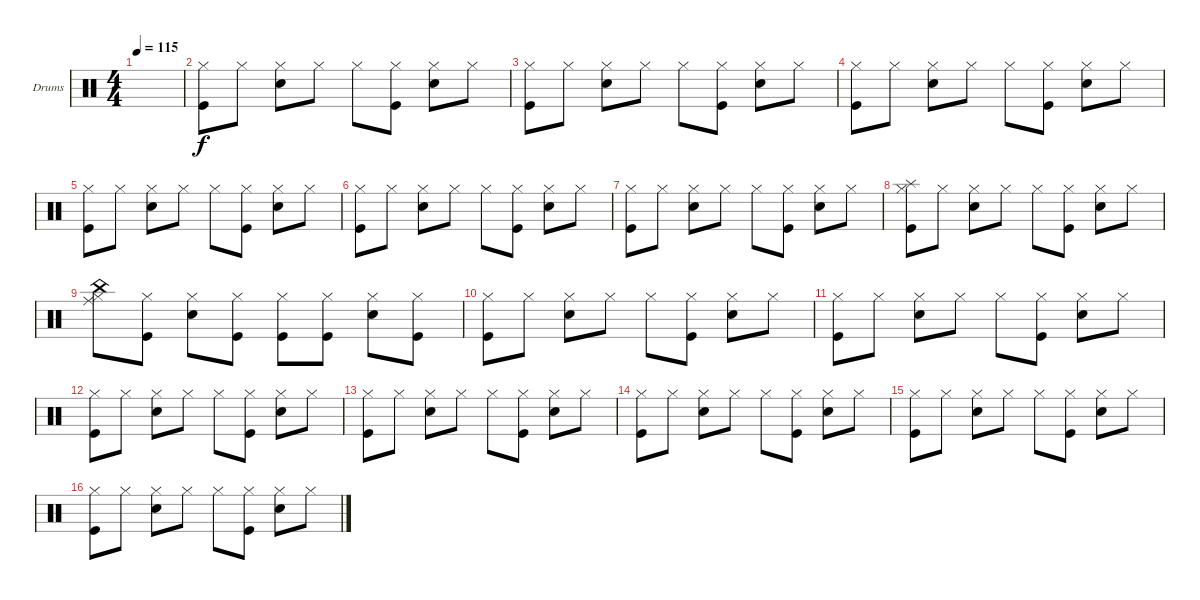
\defaultSystemsLayout 4
\bracketExtendMode groupsimilarinstruments
\firstSystemTrackNameOrientation horizontal
\otherSystemsTrackNameOrientation horizontal
\track ("Drumkit" "Drums") {instrument percussion}
\staff {score}
\articulation defaults
\ts (4 4)
\tempo 115
\clef neutral
\scale
0.474178
\ks c
|
\scale
0.262911 ("Kick (hit)" "Hi-Hat (closed)").8 "Hi-Hat (closed)".8 ("Hi-Hat (closed)" "Snare (hit) 2").8 "Hi-Hat (closed)".8 "Hi-Hat (closed)".8 ("Hi-Hat (closed)" "Kick (hit)").8 ("Hi-Hat (closed)" "Snare (hit) 2").8 "Hi-Hat (closed)".8 |
\scale
0.262911 ("Kick (hit)" "Hi-Hat (closed)").8 "Hi-Hat (closed)".8 ("Hi-Hat (closed)" "Snare (hit) 2").8 "Hi-Hat (closed)".8 "Hi-Hat (closed)".8 ("Hi-Hat (closed)" "Kick (hit)").8 ("Hi-Hat (closed)" "Snare (hit) 2").8 "Hi-Hat (closed)".8 |
\scale
0.333333 ("Kick (hit)" "Hi-Hat (closed)").8 "Hi-Hat (closed)".8 ("Hi-Hat (closed)" "Snare (hit) 2").8 "Hi-Hat (closed)".8 "Hi-Hat (closed)".8 ("Hi-Hat (closed)" "Kick (hit)").8 ("Hi-Hat (closed)" "Snare (hit) 2").8 "Hi-Hat (closed)".8 |
\scale
0.333333 ("Kick (hit)" "Hi-Hat (closed)").8 "Hi-Hat (closed)".8 ("Hi-Hat (closed)" "Snare (hit) 2").8 "Hi-Hat (closed)".8 "Hi-Hat (closed)".8 ("Hi-Hat (closed)" "Kick (hit)").8 ("Hi-Hat (closed)" "Snare (hit) 2").8 "Hi-Hat (closed)".8 |
\scale
0.333333 ("Kick (hit)" "Hi-Hat (closed)").8 "Hi-Hat (closed)".8 ("Hi-Hat (closed)" "Snare (hit) 2").8 "Hi-Hat (closed)".8 "Hi-Hat (closed)".8 ("Hi-Hat (closed)" "Kick (hit)").8 ("Hi-Hat (closed)" "Snare (hit) 2").8 "Hi-Hat (closed)".8 |
\scale
0.333333 ("Kick (hit)" "Hi-Hat (closed)").8 "Hi-Hat (closed)".8 ("Hi-Hat (closed)" "Snare (hit) 2").8 "Hi-Hat (closed)".8 "Hi-Hat (closed)".8 ("Hi-Hat (closed)" "Kick (hit)").8 ("Hi-Hat (closed)" "Snare (hit) 2").8 "Hi-Hat (closed)".8 |
\scale
0.333333 ("Kick (hit)" "Hi-Hat (closed)" "Splash (hit)").8 "Hi-Hat (closed)".8 ("Hi-Hat (closed)" "Snare (hit) 2").8 "Hi-Hat (closed)".8 "Hi-Hat (closed)".8 ("Hi-Hat (closed)" "Kick (hit)").8 ("Hi-Hat (closed)" "Snare (hit) 2").8 "Hi-Hat (closed)".8 |
\scale
0.333333 ("China (hit)" "Hi-Hat (closed)" "Ride (middle)").8 ("Kick (hit)" "Hi-Hat (closed)").8 ("Hi-Hat (closed)" "Snare (hit) 2").8 ("Hi-Hat (closed)" "Kick (hit)").8 ("Hi-Hat (closed)" "Kick (hit)").8 ("Hi-Hat (closed)" "Kick (hit)").8 ("Hi-Hat (closed)" "Snare (hit) 2").8 ("Hi-Hat (closed)" "Kick (hit)").8 |
("Kick (hit)" "Hi-Hat (closed)").8 "Hi-Hat (closed)".8 ("Hi-Hat (closed)" "Snare (hit) 2").8 "Hi-Hat (closed)".8 "Hi-Hat (closed)".8 ("Hi-Hat (closed)" "Kick (hit)").8 ("Hi-Hat (closed)" "Snare (hit) 2").8 "Hi-Hat (closed)".8 |
("Kick (hit)" "Hi-Hat (closed)").8 "Hi-Hat (closed)".8 ("Hi-Hat (closed)" "Snare (hit) 2").8 "Hi-Hat (closed)".8 "Hi-Hat (closed)".8 ("Hi-Hat (closed)" "Kick (hit)").8 ("Hi-Hat (closed)" "Snare (hit) 2").8 "Hi-Hat (closed)".8 |
("Kick (hit)" "Hi-Hat (closed)").8 "Hi-Hat (closed)".8 ("Hi-Hat (closed)" "Snare (hit) 2").8 "Hi-Hat (closed)".8 "Hi-Hat (closed)".8 ("Hi-Hat (closed)" "Kick (hit)").8 ("Hi-Hat (closed)" "Snare (hit) 2").8 "Hi-Hat (closed)".8 |
("Kick (hit)" "Hi-Hat (closed)").8 "Hi-Hat (closed)".8 ("Hi-Hat (closed)" "Snare (hit) 2").8 "Hi-Hat (closed)".8 "Hi-Hat (closed)".8 ("Hi-Hat (closed)" "Kick (hit)").8 ("Hi-Hat (closed)" "Snare (hit) 2").8 "Hi-Hat (closed)".8 |
("Kick (hit)" "Hi-Hat (closed)").8 "Hi-Hat (closed)".8 ("Hi-Hat (closed)" "Snare (hit) 2").8 "Hi-Hat (closed)".8 "Hi-Hat (closed)".8 ("Hi-Hat (closed)" "Kick (hit)").8 ("Hi-Hat (closed)" "Snare (hit) 2").8 "Hi-Hat (closed)".8 |
("Kick (hit)" "Hi-Hat (closed)").8 "Hi-Hat (closed)".8 ("Hi-Hat (closed)" "Snare (hit) 2").8 "Hi-Hat (closed)".8 "Hi-Hat (closed)".8 ("Hi-Hat (closed)" "Kick (hit)").8 ("Hi-Hat (closed)" "Snare (hit) 2").8 "Hi-Hat (closed)".8 |
("Kick (hit)" "Hi-Hat (closed)").8 "Hi-Hat (closed)".8 ("Hi-Hat (closed)" "Snare (hit) 2").8 "Hi-Hat (closed)".8 "Hi-Hat (closed)".8 ("Hi-Hat (closed)" "Kick (hit)").8 ("Hi-Hat (closed)" "Snare (hit) 2").8 "Hi-Hat (closed)".8
